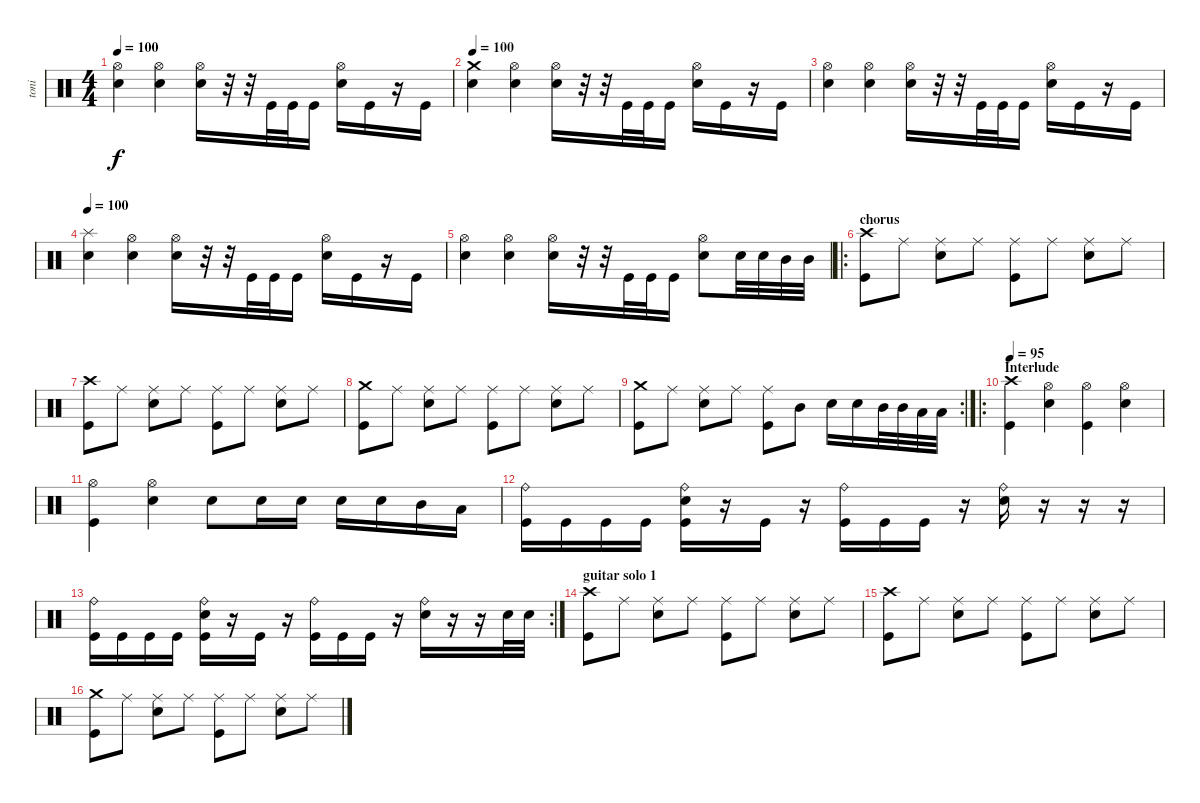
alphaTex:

\track ("toni" "toni") {instrument percussion}
\staff {score}
\articulation defaults
\ts (4 4)
\tempo 100
\clef neutral
\ks c
("Hi-Hat (open)" "Snare (hit) 2").4{dy f} ("Hi-Hat (open)" "Snare (hit) 2").4 ("Hi-Hat (open)" "Snare (hit) 2").16 r.32 r.32 "Kick (hit)".32 "Kick (hit)".32 "Kick (hit)".16 ("Hi-Hat (open)" "Snare (hit) 2").16 "Kick (hit)".16 r.16 "Kick (hit)".16 |
\tempo 100
("Crash medium (hit)" "Snare (hit) 2").4 ("Hi-Hat (open)" "Snare (hit) 2").4 ("Hi-Hat (open)" "Snare (hit) 2").16 r.32 r.32 "Kick (hit)".32 "Kick (hit)".32 "Kick (hit)".16 ("Hi-Hat (open)" "Snare (hit) 2").16 "Kick (hit)".16 r.16 "Kick (hit)".16 |
("Hi-Hat (open)" "Snare (hit) 2").4 ("Hi-Hat (open)" "Snare (hit) 2").4 ("Hi-Hat (open)" "Snare (hit) 2").16 r.32 r.32 "Kick (hit)".32 "Kick (hit)".32 "Kick (hit)".16 ("Hi-Hat (open)" "Snare (hit) 2").16 "Kick (hit)".16 r.16 "Kick (hit)".16 |
\tempo 100
("Splash (hit)" "Snare (hit) 2").4 ("Hi-Hat (open)" "Snare (hit) 2").4 ("Hi-Hat (open)" "Snare (hit) 2").16 r.32 r.32 "Kick (hit)".32 "Kick (hit)".32 "Kick (hit)".16 ("Hi-Hat (open)" "Snare (hit) 2").16 "Kick (hit)".16 r.16 "Kick (hit)".16 |
("Hi-Hat (open)" "Snare (hit) 2").4 ("Hi-Hat (open)" "Snare (hit) 2").4 ("Hi-Hat (open)" "Snare (hit) 2").16 r.32 r.32 "Kick (hit)".32 "Kick (hit)".32 "Kick (hit)".16 ("Hi-Hat (open)" "Snare (hit) 2").8 "Snare (hit) 2".32 "Snare (hit) 2".32 "Mid Tom (hit)".32 "Mid Tom (hit)".32 |
\ro
\section ("" "chorus")
("Crash high (hit)" "Kick (hit)").8 "Ride (middle)".8 ("Ride (middle)" "Snare (hit) 2").8 "Ride (middle)".8 ("Ride (middle)" "Kick (hit)").8 "Ride (middle)".8 ("Ride (middle)" "Snare (hit) 2").8 "Ride (middle)".8 |
("Crash high (hit)" "Kick (hit)").8 "Ride (middle)".8 ("Ride (middle)" "Snare (hit) 2").8 "Ride (middle)".8 ("Ride (middle)" "Kick (hit)").8 "Ride (middle)".8 ("Ride (middle)" "Snare (hit) 2").8 "Ride (middle)".8 |
("Crash medium (hit)" "Kick (hit)").8 "Ride (middle)".8 ("Ride (middle)" "Snare (hit) 2").8 "Ride (middle)".8 ("Ride (middle)" "Kick (hit)").8 "Ride (middle)".8 ("Ride (middle)" "Snare (hit) 2").8 "Ride (middle)".8 |
\rc 2
("Crash medium (hit)" "Kick (hit)").8 "Ride (middle)".8 ("Ride (middle)" "Snare (hit) 2").8 "Ride (middle)".8 ("Ride (middle)" "Kick (hit)").8 "Mid Tom (hit)".8 "Snare (hit) 2".16 "Snare (hit) 2".16 "Mid Tom (hit)".32 "Mid Tom (hit)".32 "Low Tom (hit)".32 "Low Tom (hit)".32 |
\ro
\section ("" "Interlude")
\tempo 95
("Crash high (hit)" "Kick (hit)").4 ("Hi-Hat (open)" "Snare (hit) 2").4 ("Hi-Hat (open)" "Kick (hit)").4 ("Hi-Hat (open)" "Snare (hit) 2").4 |
("Hi-Hat (open)" "Kick (hit)").4 ("Hi-Hat (open)" "Snare (hit) 2").4 "Snare (hit) 2".8 "Snare (hit) 2".16 "Snare (hit) 2".16 "Snare (hit) 2".16 "Snare (hit) 2".16 "Mid Tom (hit)".16 "Low Tom (hit)".16 |
("Ride (bell)" "Kick (hit)").16 "Kick (hit)".16 "Kick (hit)".16 "Kick (hit)".16 ("Ride (bell)" "Snare (hit) 2" "Kick (hit)").16 r.16 "Kick (hit)".16 r.16 ("Ride (bell)" "Kick (hit)").16 "Kick (hit)".16 "Kick (hit)".16 r.16 ("Ride (bell)" "Snare (hit) 2").16 r.16 r.16 r.16 |
\rc 2
("Ride (bell)" "Kick (hit)").16 "Kick (hit)".16 "Kick (hit)".16 "Kick (hit)".16 ("Ride (bell)" "Snare (hit) 2" "Kick (hit)").16 r.16 "Kick (hit)".16 r.16 ("Ride (bell)" "Kick (hit)").16 "Kick (hit)".16 "Kick (hit)".16 r.16 ("Ride (bell)" "Snare (hit) 2").16 r.16 r.16 "Snare (hit) 2".32 "Snare (hit) 2".32 |
\section ("" "guitar solo 1")
("Crash high (hit)" "Kick (hit)").8 "Ride (middle)".8 ("Ride (middle)" "Snare (hit) 2").8 "Ride (middle)".8 ("Ride (middle)" "Kick (hit)").8 "Ride (middle)".8 ("Ride (middle)" "Snare (hit) 2").8 "Ride (middle)".8 |
("Crash high (hit)" "Kick (hit)").8 "Ride (middle)".8 ("Ride (middle)" "Snare (hit) 2").8 "Ride (middle)".8 ("Ride (middle)" "Kick (hit)").8 "Ride (middle)".8 ("Ride (middle)" "Snare (hit) 2").8 "Ride (middle)".8 |
("Crash medium (hit)" "Kick (hit)").8 "Ride (middle)".8 ("Ride (middle)" "Snare (hit) 2").8 "Ride (middle)".8 ("Ride (middle)" "Kick (hit)").8 "Ride (middle)".8 ("Ride (middle)" "Snare (hit) 2").8 "Ride (middle)".8
